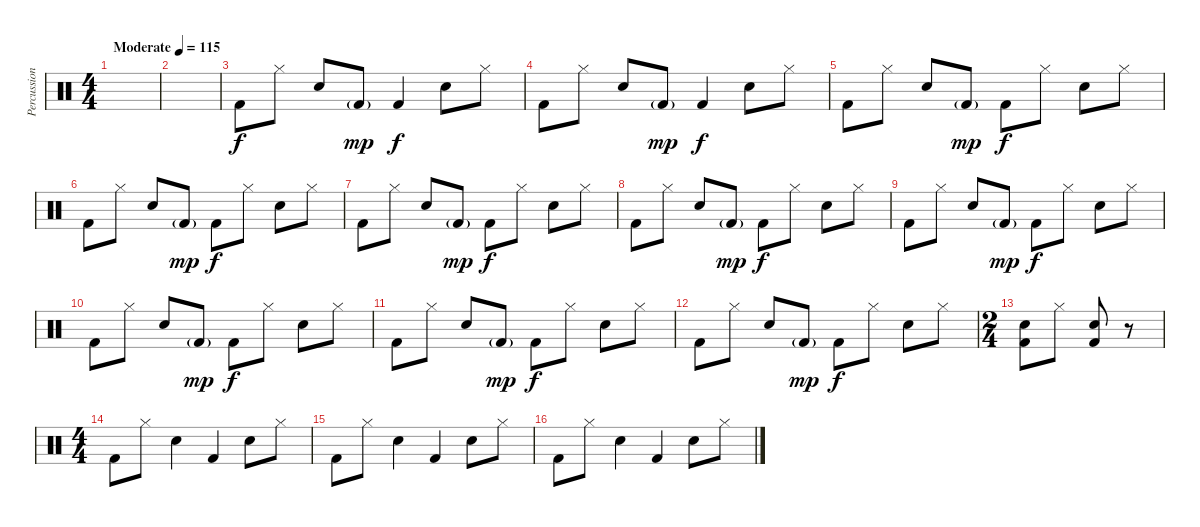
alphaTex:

\track ("Percussion" "Percussion") {instrument percussion}
\staff {score}
\articulation defaults
\ts (4 4)
\tempo (115 "Moderate")
\clef neutral
\ks c
|
|
"Kick (hit) 2".8 "Hi-Hat (closed)".8 "Snare (hit) 2".8 "Kick (hit) 2"{g}.8{dy mp} "Kick (hit) 2".4{dy f} "Snare (hit) 2".8 "Hi-Hat (closed)".8 |
"Kick (hit) 2".8 "Hi-Hat (closed)".8 "Snare (hit) 2".8 "Kick (hit) 2"{g}.8{dy mp} "Kick (hit) 2".4{dy f} "Snare (hit) 2".8 "Hi-Hat (closed)".8 |
"Kick (hit) 2".8 "Hi-Hat (closed)".8 "Snare (hit) 2".8 "Kick (hit) 2"{g}.8{dy mp} "Kick (hit) 2".8{dy f} "Hi-Hat (closed)".8 "Snare (hit) 2".8 "Hi-Hat (closed)".8 |
"Kick (hit) 2".8 "Hi-Hat (closed)".8 "Snare (hit) 2".8 "Kick (hit) 2"{g}.8{dy mp} "Kick (hit) 2".8{dy f} "Hi-Hat (closed)".8 "Snare (hit) 2".8 "Hi-Hat (closed)".8 |
"Kick (hit) 2".8 "Hi-Hat (closed)".8 "Snare (hit) 2".8 "Kick (hit) 2"{g}.8{dy mp} "Kick (hit) 2".8{dy f} "Hi-Hat (closed)".8 "Snare (hit) 2".8 "Hi-Hat (closed)".8 |
"Kick (hit) 2".8 "Hi-Hat (closed)".8 "Snare (hit) 2".8 "Kick (hit) 2"{g}.8{dy mp} "Kick (hit) 2".8{dy f} "Hi-Hat (closed)".8 "Snare (hit) 2".8 "Hi-Hat (closed)".8 |
"Kick (hit) 2".8 "Hi-Hat (closed)".8 "Snare (hit) 2".8 "Kick (hit) 2"{g}.8{dy mp} "Kick (hit) 2".8{dy f} "Hi-Hat (closed)".8 "Snare (hit) 2".8 "Hi-Hat (closed)".8 |
"Kick (hit) 2".8 "Hi-Hat (closed)".8 "Snare (hit) 2".8 "Kick (hit) 2"{g}.8{dy mp} "Kick (hit) 2".8{dy f} "Hi-Hat (closed)".8 "Snare (hit) 2".8 "Hi-Hat (closed)".8 |
"Kick (hit) 2".8 "Hi-Hat (closed)".8 "Snare (hit) 2".8 "Kick (hit) 2"{g}.8{dy mp} "Kick (hit) 2".8{dy f} "Hi-Hat (closed)".8 "Snare (hit) 2".8 "Hi-Hat (closed)".8 |
"Kick (hit) 2".8 "Hi-Hat (closed)".8 "Snare (hit) 2".8 "Kick (hit) 2"{g}.8{dy mp} "Kick (hit) 2".8{dy f} "Hi-Hat (closed)".8 "Snare (hit) 2".8 "Hi-Hat (closed)".8 |
\ts (2 4)
("Snare (hit) 2" "Kick (hit) 2").8 "Hi-Hat (closed)".8 ("Snare (hit) 2" "Kick (hit) 2").8 r.8 |
\ts (4 4)
"Kick (hit) 2".8 "Hi-Hat (closed)".8 "Snare (hit) 2".4 "Kick (hit) 2".4 "Snare (hit) 2".8 "Hi-Hat (closed)".8 |
"Kick (hit) 2".8 "Hi-Hat (closed)".8 "Snare (hit) 2".4 "Kick (hit) 2".4 "Snare (hit) 2".8 "Hi-Hat (closed)".8 |
"Kick (hit) 2".8 "Hi-Hat (closed)".8 "Snare (hit) 2".4 "Kick (hit) 2".4 "Snare (hit) 2".8 "Hi-Hat (closed)".8
